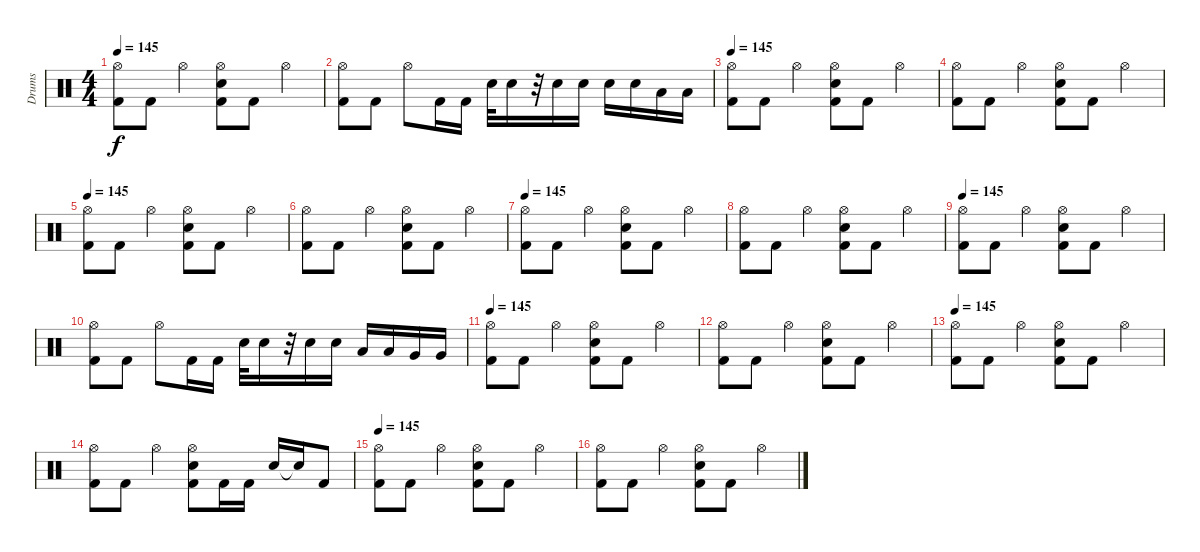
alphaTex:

\track ("Drums" "Drums") {instrument percussion}
\staff {score}
\articulation defaults
\ts (4 4)
\tempo 145
\clef neutral
\ks c
("Hi-Hat (open)" "Kick (hit) 2").8{dy f} "Kick (hit) 2".8 "Hi-Hat (open)".4 ("Hi-Hat (open)" "Electric Snare (hit)" "Kick (hit) 2").8 "Kick (hit) 2".8 "Hi-Hat (open)".4 |
("Hi-Hat (open)" "Kick (hit) 2").8 "Kick (hit) 2".8 "Hi-Hat (open)".8 "Kick (hit) 2".16 "Kick (hit) 2".16 "Electric Snare (hit)".32 "Electric Snare (hit)".16 r.32 "Electric Snare (hit)".16 "Electric Snare (hit)".16 "Electric Snare (hit)".16 "Electric Snare (hit)".16 "Low Tom (hit)".16 "Low Tom (hit)".16 |
\tempo 145
("Hi-Hat (open)" "Kick (hit) 2").8 "Kick (hit) 2".8 "Hi-Hat (open)".4 ("Hi-Hat (open)" "Electric Snare (hit)" "Kick (hit) 2").8 "Kick (hit) 2".8 "Hi-Hat (open)".4 |
("Hi-Hat (open)" "Kick (hit) 2").8 "Kick (hit) 2".8 "Hi-Hat (open)".4 ("Hi-Hat (open)" "Electric Snare (hit)" "Kick (hit) 2").8 "Kick (hit) 2".8 "Hi-Hat (open)".4 |
\tempo 145
("Hi-Hat (open)" "Kick (hit) 2").8 "Kick (hit) 2".8 "Hi-Hat (open)".4 ("Hi-Hat (open)" "Electric Snare (hit)" "Kick (hit) 2").8 "Kick (hit) 2".8 "Hi-Hat (open)".4 |
("Hi-Hat (open)" "Kick (hit) 2").8 "Kick (hit) 2".8 "Hi-Hat (open)".4 ("Hi-Hat (open)" "Electric Snare (hit)" "Kick (hit) 2").8 "Kick (hit) 2".8 "Hi-Hat (open)".4 |
\tempo 145
("Hi-Hat (open)" "Kick (hit) 2").8 "Kick (hit) 2".8 "Hi-Hat (open)".4 ("Hi-Hat (open)" "Electric Snare (hit)" "Kick (hit) 2").8 "Kick (hit) 2".8 "Hi-Hat (open)".4 |
("Hi-Hat (open)" "Kick (hit) 2").8 "Kick (hit) 2".8 "Hi-Hat (open)".4 ("Hi-Hat (open)" "Electric Snare (hit)" "Kick (hit) 2").8 "Kick (hit) 2".8 "Hi-Hat (open)".4 |
\tempo 145
("Hi-Hat (open)" "Kick (hit) 2").8 "Kick (hit) 2".8 "Hi-Hat (open)".4 ("Hi-Hat (open)" "Electric Snare (hit)" "Kick (hit) 2").8 "Kick (hit) 2".8 "Hi-Hat (open)".4 |
("Hi-Hat (open)" "Kick (hit) 2").8 "Kick (hit) 2".8 "Hi-Hat (open)".8 "Kick (hit) 2".16 "Kick (hit) 2".16 "Electric Snare (hit)".32 "Electric Snare (hit)".16 r.32 "Electric Snare (hit)".16 "Electric Snare (hit)".16 "Low Tom (hit)".16 "Low Tom (hit)".16 "Very Low Tom (hit)".16 "Very Low Tom (hit)".16 |
\tempo 145
("Hi-Hat (open)" "Kick (hit) 2").8 "Kick (hit) 2".8 "Hi-Hat (open)".4 ("Hi-Hat (open)" "Electric Snare (hit)" "Kick (hit) 2").8 "Kick (hit) 2".8 "Hi-Hat (open)".4 |
("Hi-Hat (open)" "Kick (hit) 2").8 "Kick (hit) 2".8 "Hi-Hat (open)".4 ("Hi-Hat (open)" "Electric Snare (hit)" "Kick (hit) 2").8 "Kick (hit) 2".8 "Hi-Hat (open)".4 |
\tempo 145
("Hi-Hat (open)" "Kick (hit) 2").8 "Kick (hit) 2".8 "Hi-Hat (open)".4 ("Hi-Hat (open)" "Electric Snare (hit)" "Kick (hit) 2").8 "Kick (hit) 2".8 "Hi-Hat (open)".4 |
("Hi-Hat (open)" "Kick (hit) 2").8 "Kick (hit) 2".8 "Hi-Hat (open)".4 ("Hi-Hat (open)" "Electric Snare (hit)" "Kick (hit) 2").8 "Kick (hit) 2".16 "Kick (hit) 2".16 "Electric Snare (hit)".16 "Snare (hit)"{t}.16 "Kick (hit) 2".8 |
\tempo 145
("Hi-Hat (open)" "Kick (hit) 2").8 "Kick (hit) 2".8 "Hi-Hat (open)".4 ("Hi-Hat (open)" "Electric Snare (hit)" "Kick (hit) 2").8 "Kick (hit) 2".8 "Hi-Hat (open)".4 |
("Hi-Hat (open)" "Kick (hit) 2").8 "Kick (hit) 2".8 "Hi-Hat (open)".4 ("Hi-Hat (open)" "Electric Snare (hit)" "Kick (hit) 2").8 "Kick (hit) 2".8 "Hi-Hat (open)".4
